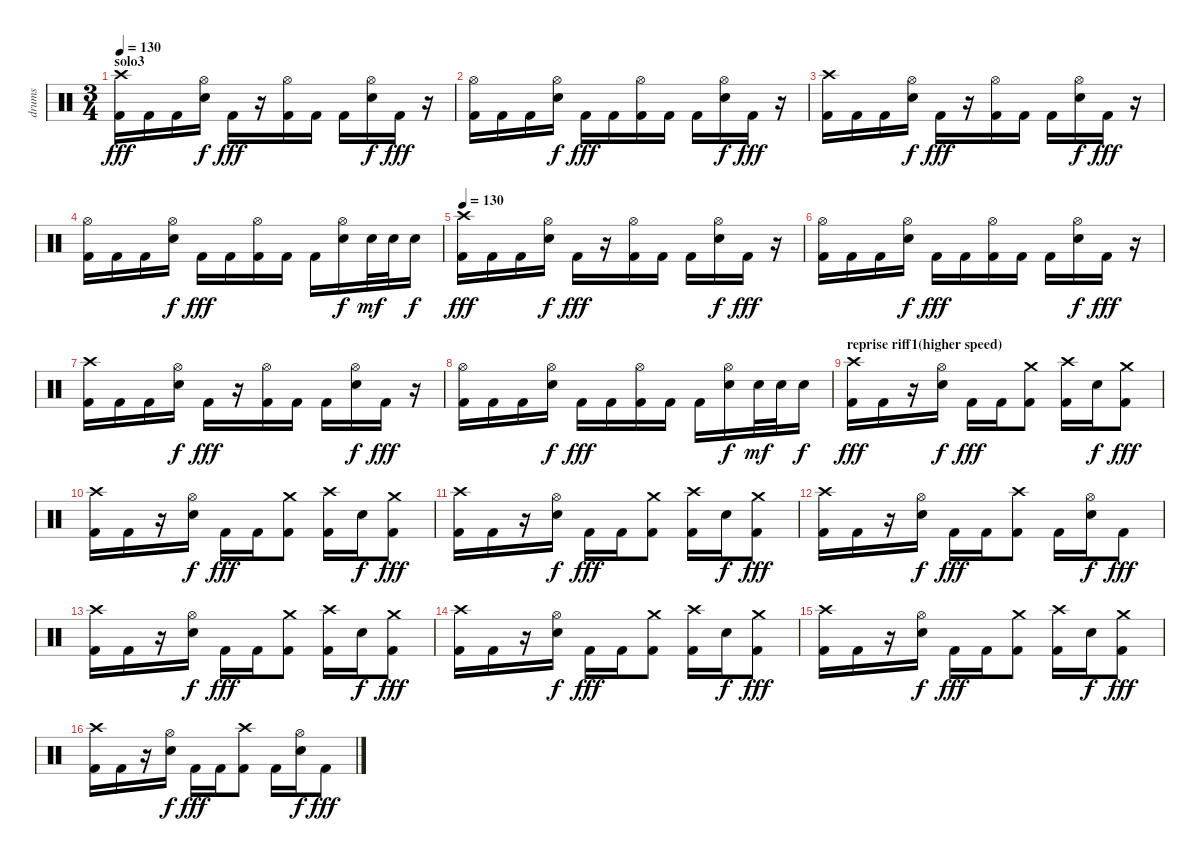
\track ("drums" "drums") {instrument percussion}
\staff {score}
\articulation defaults
\ts (3 4)
\section ("" "solo3")
\tempo 130
\clef neutral
\ks c
("Crash high (hit)" "Kick (hit) 2").16{dy fff} "Kick (hit) 2".16 "Kick (hit) 2".16 ("Hi-Hat (open)" "Snare (hit) 2").16{dy f} "Kick (hit) 2".16{dy fff} r.16 ("Hi-Hat (open)" "Kick (hit) 2").16 "Kick (hit) 2".16 "Kick (hit) 2".16 ("Hi-Hat (open)" "Snare (hit) 2").16{dy f} "Kick (hit) 2".16{dy fff} r.16 |
("Hi-Hat (open)" "Kick (hit) 2").16 "Kick (hit) 2".16 "Kick (hit) 2".16 ("Hi-Hat (open)" "Snare (hit) 2").16{dy f} "Kick (hit) 2".16{dy fff} "Kick (hit) 2".16 ("Hi-Hat (open)" "Kick (hit) 2").16 "Kick (hit) 2".16 "Kick (hit) 2".16 ("Hi-Hat (open)" "Snare (hit) 2").16{dy f} "Kick (hit) 2".16{dy fff} r.16 |
("Crash high (hit)" "Kick (hit) 2").16 "Kick (hit) 2".16 "Kick (hit) 2".16 ("Hi-Hat (open)" "Snare (hit) 2").16{dy f} "Kick (hit) 2".16{dy fff} r.16 ("Hi-Hat (open)" "Kick (hit) 2").16 "Kick (hit) 2".16 "Kick (hit) 2".16 ("Hi-Hat (open)" "Snare (hit) 2").16{dy f} "Kick (hit) 2".16{dy fff} r.16 |
("Hi-Hat (open)" "Kick (hit) 2").16 "Kick (hit) 2".16 "Kick (hit) 2".16 ("Hi-Hat (open)" "Snare (hit) 2").16{dy f} "Kick (hit) 2".16{dy fff} "Kick (hit) 2".16 ("Hi-Hat (open)" "Kick (hit) 2").16 "Kick (hit) 2".16 "Kick (hit) 2".16 ("Hi-Hat (open)" "Snare (hit) 2").16{dy f} "Snare (hit) 2".32{dy mf} "Snare (hit) 2".32 "Snare (hit) 2".16{dy f} |
\tempo 130
("Crash high (hit)" "Kick (hit) 2").16{dy fff} "Kick (hit) 2".16 "Kick (hit) 2".16 ("Hi-Hat (open)" "Snare (hit) 2").16{dy f} "Kick (hit) 2".16{dy fff} r.16 ("Hi-Hat (open)" "Kick (hit) 2").16 "Kick (hit) 2".16 "Kick (hit) 2".16 ("Hi-Hat (open)" "Snare (hit) 2").16{dy f} "Kick (hit) 2".16{dy fff} r.16 |
("Hi-Hat (open)" "Kick (hit) 2").16 "Kick (hit) 2".16 "Kick (hit) 2".16 ("Hi-Hat (open)" "Snare (hit) 2").16{dy f} "Kick (hit) 2".16{dy fff} "Kick (hit) 2".16 ("Hi-Hat (open)" "Kick (hit) 2").16 "Kick (hit) 2".16 "Kick (hit) 2".16 ("Hi-Hat (open)" "Snare (hit) 2").16{dy f} "Kick (hit) 2".16{dy fff} r.16 |
("Crash high (hit)" "Kick (hit) 2").16 "Kick (hit) 2".16 "Kick (hit) 2".16 ("Hi-Hat (open)" "Snare (hit) 2").16{dy f} "Kick (hit) 2".16{dy fff} r.16 ("Hi-Hat (open)" "Kick (hit) 2").16 "Kick (hit) 2".16 "Kick (hit) 2".16 ("Hi-Hat (open)" "Snare (hit) 2").16{dy f} "Kick (hit) 2".16{dy fff} r.16 |
("Hi-Hat (open)" "Kick (hit) 2").16 "Kick (hit) 2".16 "Kick (hit) 2".16 ("Hi-Hat (open)" "Snare (hit) 2").16{dy f} "Kick (hit) 2".16{dy fff} "Kick (hit) 2".16 ("Hi-Hat (open)" "Kick (hit) 2").16 "Kick (hit) 2".16 "Kick (hit) 2".16 ("Hi-Hat (open)" "Snare (hit) 2").16{dy f} "Snare (hit) 2".32{dy mf} "Snare (hit) 2".32 "Snare (hit) 2".16{dy f} |
\section ("" "reprise riff1(higher speed)")
("Crash high (hit)" "Kick (hit) 2").16{dy fff} "Kick (hit) 2".16 r.16 ("Hi-Hat (open)" "Snare (hit) 2").16{dy f} "Kick (hit) 2".16{dy fff} "Kick (hit) 2".16 ("Crash medium (hit)" "Kick (hit) 2").8 ("Crash high (hit)" "Kick (hit) 2").16 "Snare (hit) 2".16{dy f} ("Crash medium (hit)" "Kick (hit) 2").8{dy fff} |
("Crash high (hit)" "Kick (hit) 2").16 "Kick (hit) 2".16 r.16 ("Hi-Hat (open)" "Snare (hit) 2").16{dy f} "Kick (hit) 2".16{dy fff} "Kick (hit) 2".16 ("Crash medium (hit)" "Kick (hit) 2").8 ("Crash high (hit)" "Kick (hit) 2").16 "Snare (hit) 2".16{dy f} ("Crash medium (hit)" "Kick (hit) 2").8{dy fff} |
("Crash high (hit)" "Kick (hit) 2").16 "Kick (hit) 2".16 r.16 ("Hi-Hat (open)" "Snare (hit) 2").16{dy f} "Kick (hit) 2".16{dy fff} "Kick (hit) 2".16 ("Crash medium (hit)" "Kick (hit) 2").8 ("Crash high (hit)" "Kick (hit) 2").16 "Snare (hit) 2".16{dy f} ("Crash medium (hit)" "Kick (hit) 2").8{dy fff} |
("Crash high (hit)" "Kick (hit) 2").16 "Kick (hit) 2".16 r.16 ("Hi-Hat (open)" "Snare (hit) 2").16{dy f} "Kick (hit) 2".16{dy fff} "Kick (hit) 2".16 ("Crash high (hit)" "Kick (hit) 2").8 "Kick (hit) 2".16 ("Hi-Hat (open)" "Snare (hit) 2").16{dy f} "Kick (hit) 2".8{dy fff} |
("Crash high (hit)" "Kick (hit) 2").16 "Kick (hit) 2".16 r.16 ("Hi-Hat (open)" "Snare (hit) 2").16{dy f} "Kick (hit) 2".16{dy fff} "Kick (hit) 2".16 ("Crash medium (hit)" "Kick (hit) 2").8 ("Crash high (hit)" "Kick (hit) 2").16 "Snare (hit) 2".16{dy f} ("Crash medium (hit)" "Kick (hit) 2").8{dy fff} |
("Crash high (hit)" "Kick (hit) 2").16 "Kick (hit) 2".16 r.16 ("Hi-Hat (open)" "Snare (hit) 2").16{dy f} "Kick (hit) 2".16{dy fff} "Kick (hit) 2".16 ("Crash medium (hit)" "Kick (hit) 2").8 ("Crash high (hit)" "Kick (hit) 2").16 "Snare (hit) 2".16{dy f} ("Crash medium (hit)" "Kick (hit) 2").8{dy fff} |
("Crash high (hit)" "Kick (hit) 2").16 "Kick (hit) 2".16 r.16 ("Hi-Hat (open)" "Snare (hit) 2").16{dy f} "Kick (hit) 2".16{dy fff} "Kick (hit) 2".16 ("Crash medium (hit)" "Kick (hit) 2").8 ("Crash high (hit)" "Kick (hit) 2").16 "Snare (hit) 2".16{dy f} ("Crash medium (hit)" "Kick (hit) 2").8{dy fff} |
("Crash high (hit)" "Kick (hit) 2").16 "Kick (hit) 2".16 r.16 ("Hi-Hat (open)" "Snare (hit) 2").16{dy f} "Kick (hit) 2".16{dy fff} "Kick (hit) 2".16 ("Crash high (hit)" "Kick (hit) 2").8 "Kick (hit) 2".16 ("Hi-Hat (open)" "Snare (hit) 2").16{dy f} "Kick (hit) 2".8{dy fff}
